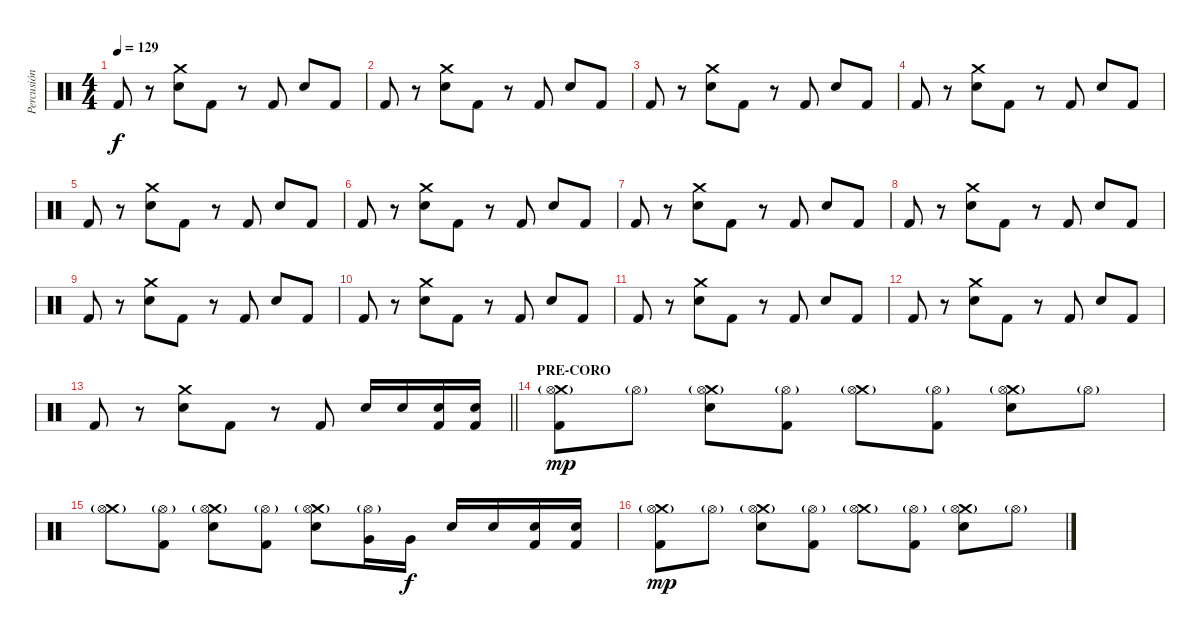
\track ("Percusión" "Percusión") {instrument percussion}
\staff {score}
\articulation defaults
\ts (4 4)
\tempo 129
\clef neutral
\ks c "Kick (hit) 2".8{dy f}
r.8 ("Crash medium (hit)" "Snare (hit) 2").8 "Kick (hit) 2".8 r.8 "Kick (hit) 2".8 "Snare (hit) 2".8 "Kick (hit) 2".8 |
"Kick (hit) 2".8 r.8 ("Crash medium (hit)" "Snare (hit) 2").8 "Kick (hit) 2".8 r.8 "Kick (hit) 2".8 "Snare (hit) 2".8 "Kick (hit) 2".8 |
"Kick (hit) 2".8 r.8 ("Crash medium (hit)" "Snare (hit) 2").8 "Kick (hit) 2".8 r.8 "Kick (hit) 2".8 "Snare (hit) 2".8 "Kick (hit) 2".8 |
"Kick (hit) 2".8 r.8 ("Crash medium (hit)" "Snare (hit) 2").8 "Kick (hit) 2".8 r.8 "Kick (hit) 2".8 "Snare (hit) 2".8 "Kick (hit) 2".8 |
"Kick (hit) 2".8 r.8 ("Crash medium (hit)" "Snare (hit) 2").8 "Kick (hit) 2".8 r.8 "Kick (hit) 2".8 "Snare (hit) 2".8 "Kick (hit) 2".8 |
"Kick (hit) 2".8 r.8 ("Crash medium (hit)" "Snare (hit) 2").8 "Kick (hit) 2".8 r.8 "Kick (hit) 2".8 "Snare (hit) 2".8 "Kick (hit) 2".8 |
"Kick (hit) 2".8 r.8 ("Crash medium (hit)" "Snare (hit) 2").8 "Kick (hit) 2".8 r.8 "Kick (hit) 2".8 "Snare (hit) 2".8 "Kick (hit) 2".8 |
"Kick (hit) 2".8 r.8 ("Crash medium (hit)" "Snare (hit) 2").8 "Kick (hit) 2".8 r.8 "Kick (hit) 2".8 "Snare (hit) 2".8 "Kick (hit) 2".8 |
"Kick (hit) 2".8 r.8 ("Crash medium (hit)" "Snare (hit) 2").8 "Kick (hit) 2".8 r.8 "Kick (hit) 2".8 "Snare (hit) 2".8 "Kick (hit) 2".8 |
"Kick (hit) 2".8 r.8 ("Crash medium (hit)" "Snare (hit) 2").8 "Kick (hit) 2".8 r.8 "Kick (hit) 2".8 "Snare (hit) 2".8 "Kick (hit) 2".8 |
"Kick (hit) 2".8 r.8 ("Crash medium (hit)" "Snare (hit) 2").8 "Kick (hit) 2".8 r.8 "Kick (hit) 2".8 "Snare (hit) 2".8 "Kick (hit) 2".8 |
"Kick (hit) 2".8 r.8 ("Crash medium (hit)" "Snare (hit) 2").8 "Kick (hit) 2".8 r.8 "Kick (hit) 2".8 "Snare (hit) 2".8 "Kick (hit) 2".8 |
\barLineRight lightlight "Kick (hit) 2".8
r.8 ("Crash medium (hit)" "Snare (hit) 2").8 "Kick (hit) 2".8 r.8 "Kick (hit) 2".8 "Snare (hit) 2".16 "Snare (hit) 2".16 ("Snare (hit) 2" "Kick (hit) 2").16 ("Snare (hit) 2" "Kick (hit) 2").16 |
\section ("" "PRE-CORO")
("Crash medium (hit)"{g} "Hi-Hat (open)" "Kick (hit) 2").8{dy mp} "Hi-Hat (open)"{g}.8 ("Crash medium (hit)"{g} "Hi-Hat (open)" "Snare (hit) 2").8 ("Hi-Hat (open)"{g} "Kick (hit) 2").8 ("Crash medium (hit)"{g} "Hi-Hat (open)").8 ("Hi-Hat (open)"{g} "Kick (hit) 2").8 ("Crash medium (hit)"{g} "Hi-Hat (open)" "Snare (hit) 2").8 "Hi-Hat (open)"{g}.8 |
("Crash medium (hit)"{g} "Hi-Hat (open)").8 ("Hi-Hat (open)"{g} "Kick (hit) 2").8 ("Crash medium (hit)"{g} "Hi-Hat (open)" "Snare (hit) 2").8 ("Hi-Hat (open)"{g} "Kick (hit) 2").8 ("Crash medium (hit)"{g} "Hi-Hat (open)" "Snare (hit) 2").8 ("Hi-Hat (open)"{g} "Very Low Tom (hit)").16 "Very Low Tom (hit)".16{dy f} "Snare (hit) 2".16 "Snare (hit) 2".16 ("Snare (hit) 2" "Kick (hit) 2").16 ("Snare (hit) 2" "Kick (hit) 2").16 |
("Crash medium (hit)"{g} "Hi-Hat (open)" "Kick (hit) 2").8{dy mp} "Hi-Hat (open)"{g}.8 ("Crash medium (hit)"{g} "Hi-Hat (open)" "Snare (hit) 2").8 ("Hi-Hat (open)"{g} "Kick (hit) 2").8 ("Crash medium (hit)"{g} "Hi-Hat (open)").8 ("Hi-Hat (open)"{g} "Kick (hit) 2").8 ("Crash medium (hit)"{g} "Hi-Hat (open)" "Snare (hit) 2").8 "Hi-Hat (open)"{g}.8
